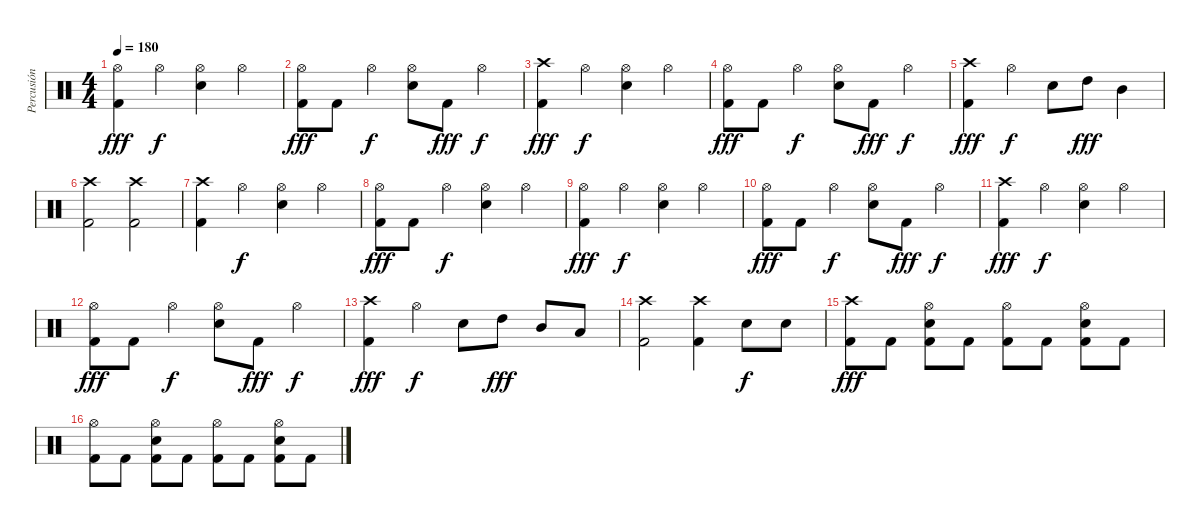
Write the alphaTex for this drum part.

\track ("Percusión" "Percusión") {instrument percussion}
\staff {score}
\articulation defaults
\ts (4 4)
\tempo 180
\clef neutral
\ks c
("Hi-Hat (open)" "Kick (hit) 2").4{dy fff} "Hi-Hat (open)".4{dy f} ("Hi-Hat (open)" "Electric Snare (hit)").4 "Hi-Hat (open)".4 |
("Hi-Hat (open)" "Kick (hit) 2").8{dy fff} "Kick (hit) 2".8 "Hi-Hat (open)".4{dy f} ("Hi-Hat (open)" "Electric Snare (hit)").8 "Kick (hit) 2".8{dy fff} "Hi-Hat (open)".4{dy f} |
("Crash high (hit)" "Kick (hit) 2").4{dy fff} "Hi-Hat (open)".4{dy f} ("Hi-Hat (open)" "Electric Snare (hit)").4 "Hi-Hat (open)".4 |
("Hi-Hat (open)" "Kick (hit) 2").8{dy fff} "Kick (hit) 2".8 "Hi-Hat (open)".4{dy f} ("Hi-Hat (open)" "Electric Snare (hit)").8 "Kick (hit) 2".8{dy fff} "Hi-Hat (open)".4{dy f} |
("Crash high (hit)" "Kick (hit) 2").4{dy fff} "Hi-Hat (open)".4{dy f} "Electric Snare (hit)".8 "High Tom (hit)".8{dy fff} "Mid Tom (hit)".4 |
("Crash high (hit)" "Kick (hit) 2").2 ("Crash high (hit)" "Kick (hit) 2").2 |
("Crash high (hit)" "Kick (hit) 2").4 "Hi-Hat (open)".4{dy f} ("Hi-Hat (open)" "Electric Snare (hit)").4 "Hi-Hat (open)".4 |
("Hi-Hat (open)" "Kick (hit) 2").8{dy fff} "Kick (hit) 2".8 "Hi-Hat (open)".4{dy f} ("Hi-Hat (open)" "Electric Snare (hit)").4 "Hi-Hat (open)".4 |
("Hi-Hat (open)" "Kick (hit) 2").4{dy fff} "Hi-Hat (open)".4{dy f} ("Hi-Hat (open)" "Electric Snare (hit)").4 "Hi-Hat (open)".4 |
("Hi-Hat (open)" "Kick (hit) 2").8{dy fff} "Kick (hit) 2".8 "Hi-Hat (open)".4{dy f} ("Hi-Hat (open)" "Electric Snare (hit)").8 "Kick (hit) 2".8{dy fff} "Hi-Hat (open)".4{dy f} |
("Crash high (hit)" "Kick (hit) 2").4{dy fff} "Hi-Hat (open)".4{dy f} ("Hi-Hat (open)" "Electric Snare (hit)").4 "Hi-Hat (open)".4 |
("Hi-Hat (open)" "Kick (hit) 2").8{dy fff} "Kick (hit) 2".8 "Hi-Hat (open)".4{dy f} ("Hi-Hat (open)" "Electric Snare (hit)").8 "Kick (hit) 2".8{dy fff} "Hi-Hat (open)".4{dy f} |
("Crash high (hit)" "Kick (hit) 2").4{dy fff} "Hi-Hat (open)".4{dy f} "Electric Snare (hit)".8 "High Tom (hit)".8{dy fff} "Mid Tom (hit)".8 "Low Tom (hit)".8 |
("Crash high (hit)" "Kick (hit) 2").2 ("Crash high (hit)" "Kick (hit) 2").4 "Electric Snare (hit)".8{dy f} "Electric Snare (hit)".8 |
("Crash high (hit)" "Kick (hit) 2").8{dy fff} "Kick (hit) 2".8 ("Hi-Hat (open)" "Electric Snare (hit)" "Kick (hit) 2").8 "Kick (hit) 2".8 ("Hi-Hat (open)" "Kick (hit) 2").8 "Kick (hit) 2".8 ("Hi-Hat (open)" "Electric Snare (hit)" "Kick (hit) 2").8 "Kick (hit) 2".8 |
("Hi-Hat (open)" "Kick (hit) 2").8 "Kick (hit) 2".8 ("Hi-Hat (open)" "Electric Snare (hit)" "Kick (hit) 2").8 "Kick (hit) 2".8 ("Hi-Hat (open)" "Kick (hit) 2").8 "Kick (hit) 2".8 ("Hi-Hat (open)" "Electric Snare (hit)" "Kick (hit) 2").8 "Kick (hit) 2".8
